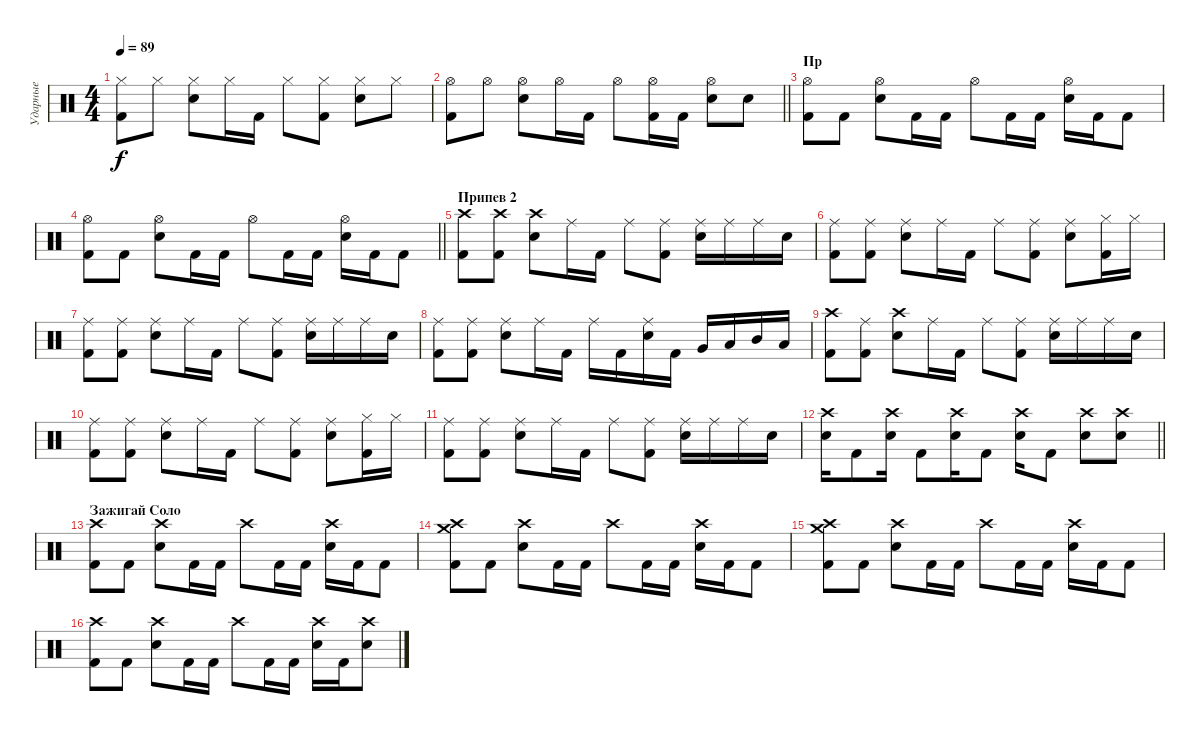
\track ("Ударные" "Ударные") {instrument percussion}
\staff {score}
\articulation defaults
\ts (4 4)
\tempo 89
\clef neutral
\ks c
("Hi-Hat (closed)" "Kick (hit) 2").8{dy f} "Hi-Hat (closed)".8 ("Hi-Hat (closed)" "Snare (hit) 2").8 "Hi-Hat (closed)".16 "Kick (hit) 2".16 "Hi-Hat (closed)".8 ("Hi-Hat (closed)" "Kick (hit) 2").8 ("Hi-Hat (closed)" "Snare (hit) 2").8 "Hi-Hat (closed)".8 |
\barLineRight lightlight
("Hi-Hat (open)" "Kick (hit) 2").8 "Hi-Hat (open)".8 ("Hi-Hat (open)" "Snare (hit) 2").8 "Hi-Hat (open)".16 "Kick (hit) 2".16 "Hi-Hat (open)".8 ("Hi-Hat (open)" "Kick (hit) 2").16 "Kick (hit) 2".16 ("Hi-Hat (open)" "Snare (hit) 2").8 "Snare (hit) 2".8 |
\section ("" "Пр")
("Hi-Hat (open)" "Kick (hit) 2").8 "Kick (hit) 2".8 ("Hi-Hat (open)" "Snare (hit) 2").8 "Kick (hit) 2".16 "Kick (hit) 2".16 "Hi-Hat (open)".8 "Kick (hit) 2".16 "Kick (hit) 2".16 ("Hi-Hat (open)" "Snare (hit) 2").16 "Kick (hit) 2".16 "Kick (hit) 2".8 |
\barLineRight lightlight
("Hi-Hat (open)" "Kick (hit) 2").8 "Kick (hit) 2".8 ("Hi-Hat (open)" "Snare (hit) 2").8 "Kick (hit) 2".16 "Kick (hit) 2".16 "Hi-Hat (open)".8 "Kick (hit) 2".16 "Kick (hit) 2".16 ("Hi-Hat (open)" "Snare (hit) 2").16 "Kick (hit) 2".16 "Kick (hit) 2".8 |
\section ("" "Припев 2")
("Crash high (hit)" "Kick (hit) 2").8 ("Crash high (hit)" "Kick (hit) 2").8 ("Crash high (hit)" "Snare (hit) 2").8 "Ride (middle)".16 "Kick (hit) 2".16 "Ride (middle)".8 ("Ride (middle)" "Kick (hit) 2").8 ("Ride (middle)" "Snare (hit) 2").16 "Ride (middle)".16 "Ride (middle)".16 "Snare (hit) 2".16 |
("Ride (middle)" "Kick (hit) 2").8 ("Ride (middle)" "Kick (hit) 2").8 ("Ride (middle)" "Snare (hit) 2").8 "Ride (middle)".16 "Kick (hit) 2".16 "Ride (middle)".8 ("Ride (middle)" "Kick (hit) 2").8 ("Ride (middle)" "Snare (hit) 2").8 ("Hi-Hat (closed)" "Kick (hit) 2").16 "Hi-Hat (closed)".16 |
("Ride (middle)" "Kick (hit) 2").8 ("Ride (middle)" "Kick (hit) 2").8 ("Ride (middle)" "Snare (hit) 2").8 "Ride (middle)".16 "Kick (hit) 2".16 "Ride (middle)".8 ("Ride (middle)" "Kick (hit) 2").8 ("Ride (middle)" "Snare (hit) 2").16 "Ride (middle)".16 "Ride (middle)".16 "Snare (hit) 2".16 |
("Ride (middle)" "Kick (hit) 2").8 ("Ride (middle)" "Kick (hit) 2").8 ("Ride (middle)" "Snare (hit) 2").8 "Ride (middle)".16 "Kick (hit) 2".16 "Ride (middle)".16 "Kick (hit) 2".16 ("Ride (middle)" "Snare (hit) 2").16 "Kick (hit) 2".16 "Very Low Tom (hit)".16 "Low Tom (hit)".16 "Mid Tom (hit)".16 "Low Floor Tom (hit)".16 |
("Crash high (hit)" "Kick (hit) 2").8 ("Ride (middle)" "Kick (hit) 2").8 ("Crash high (hit)" "Snare (hit) 2").8 "Ride (middle)".16 "Kick (hit) 2".16 "Ride (middle)".8 ("Ride (middle)" "Kick (hit) 2").8 ("Ride (middle)" "Snare (hit) 2").16 "Ride (middle)".16 "Ride (middle)".16 "Snare (hit) 2".16 |
("Ride (middle)" "Kick (hit) 2").8 ("Ride (middle)" "Kick (hit) 2").8 ("Ride (middle)" "Snare (hit) 2").8 "Ride (middle)".16 "Kick (hit) 2".16 "Ride (middle)".8 ("Ride (middle)" "Kick (hit) 2").8 ("Ride (middle)" "Snare (hit) 2").8 ("Hi-Hat (closed)" "Kick (hit) 2").16 "Hi-Hat (closed)".16 |
("Ride (middle)" "Kick (hit) 2").8 ("Ride (middle)" "Kick (hit) 2").8 ("Ride (middle)" "Snare (hit) 2").8 "Ride (middle)".16 "Kick (hit) 2".16 "Ride (middle)".8 ("Ride (middle)" "Kick (hit) 2").8 ("Ride (middle)" "Snare (hit) 2").16 "Ride (middle)".16 "Ride (middle)".16 "Snare (hit) 2".16 |
\barLineRight lightlight
("Crash high (hit)" "Snare (hit) 2").16 "Kick (hit) 2".8 ("Crash high (hit)" "Snare (hit) 2").16 "Kick (hit) 2".8 ("Crash high (hit)" "Snare (hit) 2").16 "Kick (hit) 2".8 ("Crash high (hit)" "Snare (hit) 2").16 "Kick (hit) 2".8 ("Crash high (hit)" "Snare (hit) 2").8 ("Crash high (hit)" "Snare (hit) 2").8 |
\section ("" "Зажигай Соло")
("Crash high (hit)" "Kick (hit) 2").8 "Kick (hit) 2".8 ("Crash high (hit)" "Snare (hit) 2").8 "Kick (hit) 2".16 "Kick (hit) 2".16 "Crash high (hit)".8 "Kick (hit) 2".16 "Kick (hit) 2".16 ("Crash high (hit)" "Snare (hit) 2").16 "Kick (hit) 2".16 "Kick (hit) 2".8 |
("Crash high (hit)" "Crash medium (hit)" "Kick (hit) 2").8 "Kick (hit) 2".8 ("Crash high (hit)" "Snare (hit) 2").8 "Kick (hit) 2".16 "Kick (hit) 2".16 "Crash high (hit)".8 "Kick (hit) 2".16 "Kick (hit) 2".16 ("Crash high (hit)" "Snare (hit) 2").16 "Kick (hit) 2".16 "Kick (hit) 2".8 |
("Crash high (hit)" "Crash medium (hit)" "Kick (hit) 2").8 "Kick (hit) 2".8 ("Crash high (hit)" "Snare (hit) 2").8 "Kick (hit) 2".16 "Kick (hit) 2".16 "Crash high (hit)".8 "Kick (hit) 2".16 "Kick (hit) 2".16 ("Crash high (hit)" "Snare (hit) 2").16 "Kick (hit) 2".16 "Kick (hit) 2".8 |
("Crash high (hit)" "Kick (hit) 2").8 "Kick (hit) 2".8 ("Crash high (hit)" "Snare (hit) 2").8 "Kick (hit) 2".16 "Kick (hit) 2".16 "Crash high (hit)".8 "Kick (hit) 2".16 "Kick (hit) 2".16 ("Crash high (hit)" "Snare (hit) 2").16 "Kick (hit) 2".16 ("Crash high (hit)" "Snare (hit) 2").8
